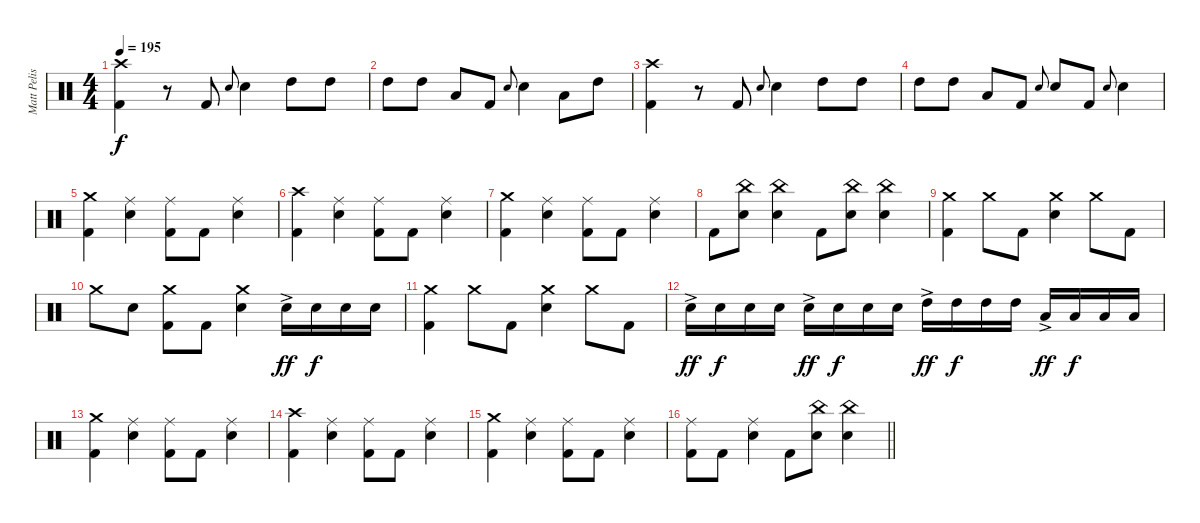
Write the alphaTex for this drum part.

\track ("Matt Pelissier" "Matt Pelis") {instrument percussion}
\staff {score}
\articulation defaults
\ts (4 4)
\tempo 195
\clef neutral
\ks c
("Crash high (hit)" "Kick (hit) 2").4{dy f} r.8 "Kick (hit) 2".8 "Electric Snare (hit)".8{gr onbeat} "Electric Snare (hit)".4 "High Tom (hit)".8 "High Tom (hit)".8 |
"High Tom (hit)".8 "High Tom (hit)".8 "Low Tom (hit)".8 "Kick (hit) 2".8 "Electric Snare (hit)".8{gr onbeat} "Electric Snare (hit)".4 "Low Tom (hit)".8 "High Tom (hit)".8 |
("Crash high (hit)" "Kick (hit) 2").4 r.8 "Kick (hit) 2".8 "Electric Snare (hit)".8{gr onbeat} "Electric Snare (hit)".4 "High Tom (hit)".8 "High Tom (hit)".8 |
"High Tom (hit)".8 "High Tom (hit)".8 "Low Tom (hit)".8 "Kick (hit) 2".8 "Electric Snare (hit)".8{gr onbeat} "Electric Snare (hit)".8 "Kick (hit) 2".8 "Electric Snare (hit)".8{gr onbeat} "Electric Snare (hit)".4 |
("Crash medium (hit)" "Kick (hit) 2").4 ("Ride (middle)" "Electric Snare (hit)").4 ("Ride (middle)" "Kick (hit) 2").8 "Kick (hit) 2".8 ("Ride (middle)" "Electric Snare (hit)").4 |
("Crash high (hit)" "Kick (hit) 2").4 ("Ride (middle)" "Electric Snare (hit)").4 ("Ride (middle)" "Kick (hit) 2").8 "Kick (hit) 2".8 ("Ride (middle)" "Electric Snare (hit)").4 |
("Crash medium (hit)" "Kick (hit) 2").4 ("Ride (middle)" "Electric Snare (hit)").4 ("Ride (middle)" "Kick (hit) 2").8 "Kick (hit) 2".8 ("Ride (middle)" "Electric Snare (hit)").4 |
"Kick (hit) 2".8 ("China (hit)" "Electric Snare (hit)").8 ("China (hit)" "Electric Snare (hit)").4 "Kick (hit) 2".8 ("China (hit)" "Electric Snare (hit)").8 ("China (hit)" "Electric Snare (hit)").4 |
("Crash medium (hit)" "Kick (hit) 2").4 "Crash medium (hit)".8 "Kick (hit) 2".8 ("Crash medium (hit)" "Electric Snare (hit)").4 "Crash medium (hit)".8 "Kick (hit) 2".8 |
"Crash medium (hit)".8 "Electric Snare (hit)".8 ("Crash medium (hit)" "Kick (hit) 2").8 "Kick (hit) 2".8 ("Crash medium (hit)" "Electric Snare (hit)").4 "Electric Snare (hit)"{ac}.16{dy ff} "Electric Snare (hit)".16{dy f} "Electric Snare (hit)".16 "Electric Snare (hit)".16 |
("Crash medium (hit)" "Kick (hit) 2").4 "Crash medium (hit)".8 "Kick (hit) 2".8 ("Crash medium (hit)" "Electric Snare (hit)").4 "Crash medium (hit)".8 "Kick (hit) 2".8 |
"Electric Snare (hit)"{ac}.16{dy ff} "Electric Snare (hit)".16{dy f} "Electric Snare (hit)".16 "Electric Snare (hit)".16 "Electric Snare (hit)"{ac}.16{dy ff} "Electric Snare (hit)".16{dy f} "Electric Snare (hit)".16 "Electric Snare (hit)".16 "High Tom (hit)"{ac}.16{dy ff} "High Tom (hit)".16{dy f} "High Tom (hit)".16 "High Tom (hit)".16 "Low Tom (hit)"{ac}.16{dy ff} "Low Tom (hit)".16{dy f} "Low Tom (hit)".16 "Low Tom (hit)".16 |
("Crash medium (hit)" "Kick (hit) 2").4 ("Ride (middle)" "Electric Snare (hit)").4 ("Ride (middle)" "Kick (hit) 2").8 "Kick (hit) 2".8 ("Ride (middle)" "Electric Snare (hit)").4 |
("Crash high (hit)" "Kick (hit) 2").4 ("Ride (middle)" "Electric Snare (hit)").4 ("Ride (middle)" "Kick (hit) 2").8 "Kick (hit) 2".8 ("Ride (middle)" "Electric Snare (hit)").4 |
("Crash medium (hit)" "Kick (hit) 2").4 ("Ride (middle)" "Electric Snare (hit)").4 ("Ride (middle)" "Kick (hit) 2").8 "Kick (hit) 2".8 ("Ride (middle)" "Electric Snare (hit)").4 |
\barLineRight lightlight
("Ride (middle)" "Kick (hit) 2").8 "Kick (hit) 2".8 ("Ride (middle)" "Electric Snare (hit)").4 "Kick (hit) 2".8 ("China (hit)" "Electric Snare (hit)").8 ("China (hit)" "Electric Snare (hit)").4
